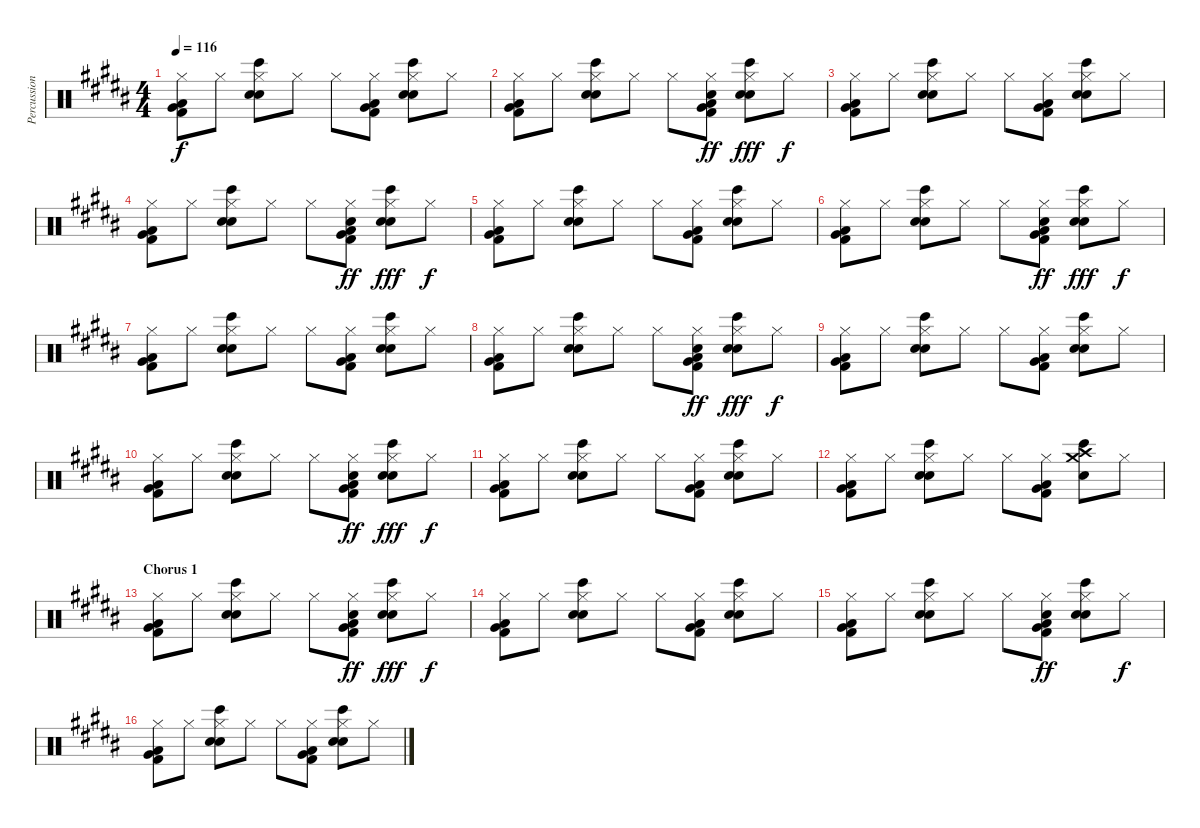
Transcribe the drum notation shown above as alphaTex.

\track ("Percussion" "Percussion") {instrument percussion}
\staff {score}
\articulation defaults
\ts (4 4)
\tempo 116
\clef neutral
\ks b
("Low Tom (hit)" "Very Low Tom (hit)" "Kick (hit) 2" "Hi-Hat (closed)").8{dy f} "Hi-Hat (closed)".8 ("Bongo High (hit)" "Hand Clap (hit)" "Snare (hit) 2" "Hi-Hat (closed)").8 "Hi-Hat (closed)".8 "Hi-Hat (closed)".8 ("Low Tom (hit)" "Very Low Tom (hit)" "Kick (hit) 2" "Hi-Hat (closed)").8 ("Bongo High (hit)" "Hand Clap (hit)" "Snare (hit) 2" "Hi-Hat (closed)").8 "Hi-Hat (closed)".8 |
("Low Tom (hit)" "Very Low Tom (hit)" "Kick (hit) 2" "Hi-Hat (closed)").8 "Hi-Hat (closed)".8 ("Bongo High (hit)" "Hand Clap (hit)" "Snare (hit) 2" "Hi-Hat (closed)").8 "Hi-Hat (closed)".8 "Hi-Hat (closed)".8 ("Low Tom (hit)" "Very Low Tom (hit)" "Kick (hit) 2" "Hi-Hat (closed)" "Hand Clap (hit)").8{dy ff} ("Bongo High (hit)" "Hand Clap (hit)" "Snare (hit) 2" "Hi-Hat (closed)").8{dy fff} "Hi-Hat (closed)".8{dy f} |
("Low Tom (hit)" "Very Low Tom (hit)" "Kick (hit) 2" "Hi-Hat (closed)").8 "Hi-Hat (closed)".8 ("Bongo High (hit)" "Hand Clap (hit)" "Snare (hit) 2" "Hi-Hat (closed)").8 "Hi-Hat (closed)".8 "Hi-Hat (closed)".8 ("Low Tom (hit)" "Very Low Tom (hit)" "Kick (hit) 2" "Hi-Hat (closed)").8 ("Bongo High (hit)" "Hand Clap (hit)" "Snare (hit) 2" "Hi-Hat (closed)").8 "Hi-Hat (closed)".8 |
("Low Tom (hit)" "Very Low Tom (hit)" "Kick (hit) 2" "Hi-Hat (closed)").8 "Hi-Hat (closed)".8 ("Bongo High (hit)" "Hand Clap (hit)" "Snare (hit) 2" "Hi-Hat (closed)").8 "Hi-Hat (closed)".8 "Hi-Hat (closed)".8 ("Low Tom (hit)" "Very Low Tom (hit)" "Kick (hit) 2" "Hi-Hat (closed)" "Hand Clap (hit)").8{dy ff} ("Bongo High (hit)" "Hand Clap (hit)" "Snare (hit) 2" "Hi-Hat (closed)").8{dy fff} "Hi-Hat (closed)".8{dy f} |
("Low Tom (hit)" "Very Low Tom (hit)" "Kick (hit) 2" "Hi-Hat (closed)").8 "Hi-Hat (closed)".8 ("Bongo High (hit)" "Hand Clap (hit)" "Snare (hit) 2" "Hi-Hat (closed)").8 "Hi-Hat (closed)".8 "Hi-Hat (closed)".8 ("Low Tom (hit)" "Very Low Tom (hit)" "Kick (hit) 2" "Hi-Hat (closed)").8 ("Bongo High (hit)" "Hand Clap (hit)" "Snare (hit) 2" "Hi-Hat (closed)").8 "Hi-Hat (closed)".8 |
("Low Tom (hit)" "Very Low Tom (hit)" "Kick (hit) 2" "Hi-Hat (closed)").8 "Hi-Hat (closed)".8 ("Bongo High (hit)" "Hand Clap (hit)" "Snare (hit) 2" "Hi-Hat (closed)").8 "Hi-Hat (closed)".8 "Hi-Hat (closed)".8 ("Low Tom (hit)" "Very Low Tom (hit)" "Kick (hit) 2" "Hi-Hat (closed)" "Hand Clap (hit)").8{dy ff} ("Bongo High (hit)" "Hand Clap (hit)" "Snare (hit) 2" "Hi-Hat (closed)").8{dy fff} "Hi-Hat (closed)".8{dy f} |
("Low Tom (hit)" "Very Low Tom (hit)" "Kick (hit) 2" "Hi-Hat (closed)").8 "Hi-Hat (closed)".8 ("Bongo High (hit)" "Hand Clap (hit)" "Snare (hit) 2" "Hi-Hat (closed)").8 "Hi-Hat (closed)".8 "Hi-Hat (closed)".8 ("Low Tom (hit)" "Very Low Tom (hit)" "Kick (hit) 2" "Hi-Hat (closed)").8 ("Bongo High (hit)" "Hand Clap (hit)" "Snare (hit) 2" "Hi-Hat (closed)").8 "Hi-Hat (closed)".8 |
("Low Tom (hit)" "Very Low Tom (hit)" "Kick (hit) 2" "Hi-Hat (closed)").8 "Hi-Hat (closed)".8 ("Bongo High (hit)" "Hand Clap (hit)" "Snare (hit) 2" "Hi-Hat (closed)").8 "Hi-Hat (closed)".8 "Hi-Hat (closed)".8 ("Low Tom (hit)" "Very Low Tom (hit)" "Kick (hit) 2" "Hi-Hat (closed)" "Hand Clap (hit)").8{dy ff} ("Bongo High (hit)" "Hand Clap (hit)" "Snare (hit) 2" "Hi-Hat (closed)").8{dy fff} "Hi-Hat (closed)".8{dy f} |
("Low Tom (hit)" "Very Low Tom (hit)" "Kick (hit) 2" "Hi-Hat (closed)").8 "Hi-Hat (closed)".8 ("Bongo High (hit)" "Hand Clap (hit)" "Snare (hit) 2" "Hi-Hat (closed)").8 "Hi-Hat (closed)".8 "Hi-Hat (closed)".8 ("Low Tom (hit)" "Very Low Tom (hit)" "Kick (hit) 2" "Hi-Hat (closed)").8 ("Bongo High (hit)" "Hand Clap (hit)" "Snare (hit) 2" "Hi-Hat (closed)").8 "Hi-Hat (closed)".8 |
("Low Tom (hit)" "Very Low Tom (hit)" "Kick (hit) 2" "Hi-Hat (closed)").8 "Hi-Hat (closed)".8 ("Bongo High (hit)" "Hand Clap (hit)" "Snare (hit) 2" "Hi-Hat (closed)").8 "Hi-Hat (closed)".8 "Hi-Hat (closed)".8 ("Low Tom (hit)" "Very Low Tom (hit)" "Kick (hit) 2" "Hi-Hat (closed)" "Hand Clap (hit)").8{dy ff} ("Bongo High (hit)" "Hand Clap (hit)" "Snare (hit) 2" "Hi-Hat (closed)").8{dy fff} "Hi-Hat (closed)".8{dy f} |
("Low Tom (hit)" "Very Low Tom (hit)" "Kick (hit) 2" "Hi-Hat (closed)").8 "Hi-Hat (closed)".8 ("Bongo High (hit)" "Hand Clap (hit)" "Snare (hit) 2" "Hi-Hat (closed)").8 "Hi-Hat (closed)".8 "Hi-Hat (closed)".8 ("Low Tom (hit)" "Very Low Tom (hit)" "Kick (hit) 2" "Hi-Hat (closed)").8 ("Bongo High (hit)" "Hand Clap (hit)" "Snare (hit) 2" "Hi-Hat (closed)").8 "Hi-Hat (closed)".8 |
("Low Tom (hit)" "Very Low Tom (hit)" "Kick (hit) 2" "Hi-Hat (closed)").8 "Hi-Hat (closed)".8 ("Bongo High (hit)" "Hand Clap (hit)" "Snare (hit) 2" "Hi-Hat (closed)").8 "Hi-Hat (closed)".8 "Hi-Hat (closed)".8 ("Low Tom (hit)" "Very Low Tom (hit)" "Kick (hit) 2" "Hi-Hat (closed)").8 ("Bongo High (hit)" "Hand Clap (hit)" "Crash medium (hit)" "Crash high (hit)").8 "Hi-Hat (closed)".8 |
\section ("" "Chorus 1")
("Low Tom (hit)" "Very Low Tom (hit)" "Kick (hit) 2" "Hi-Hat (closed)").8 "Hi-Hat (closed)".8 ("Bongo High (hit)" "Hand Clap (hit)" "Snare (hit) 2" "Hi-Hat (closed)").8 "Hi-Hat (closed)".8 "Hi-Hat (closed)".8 ("Low Tom (hit)" "Very Low Tom (hit)" "Kick (hit) 2" "Hi-Hat (closed)" "Hand Clap (hit)").8{dy ff} ("Bongo High (hit)" "Hand Clap (hit)" "Snare (hit) 2" "Hi-Hat (closed)").8{dy fff} "Hi-Hat (closed)".8{dy f} |
("Low Tom (hit)" "Very Low Tom (hit)" "Kick (hit) 2" "Hi-Hat (closed)").8 "Hi-Hat (closed)".8 ("Bongo High (hit)" "Hand Clap (hit)" "Snare (hit) 2" "Hi-Hat (closed)").8 "Hi-Hat (closed)".8 "Hi-Hat (closed)".8 ("Low Tom (hit)" "Very Low Tom (hit)" "Kick (hit) 2" "Hi-Hat (closed)").8 ("Bongo High (hit)" "Hand Clap (hit)" "Snare (hit) 2" "Hi-Hat (closed)").8 "Hi-Hat (closed)".8 |
("Low Tom (hit)" "Very Low Tom (hit)" "Kick (hit) 2" "Hi-Hat (closed)").8 "Hi-Hat (closed)".8 ("Bongo High (hit)" "Hand Clap (hit)" "Snare (hit) 2" "Hi-Hat (closed)").8 "Hi-Hat (closed)".8 "Hi-Hat (closed)".8 ("Low Tom (hit)" "Very Low Tom (hit)" "Kick (hit) 2" "Hi-Hat (closed)" "Hand Clap (hit)").8{dy ff} ("Bongo High (hit)" "Hand Clap (hit)" "Snare (hit) 2" "Hi-Hat (closed)").8 "Hi-Hat (closed)".8{dy f} |
("Low Tom (hit)" "Very Low Tom (hit)" "Kick (hit) 2" "Hi-Hat (closed)").8 "Hi-Hat (closed)".8 ("Bongo High (hit)" "Hand Clap (hit)" "Snare (hit) 2" "Hi-Hat (closed)").8 "Hi-Hat (closed)".8 "Hi-Hat (closed)".8 ("Low Tom (hit)" "Very Low Tom (hit)" "Kick (hit) 2" "Hi-Hat (closed)").8 ("Bongo High (hit)" "Hand Clap (hit)" "Snare (hit) 2" "Hi-Hat (closed)").8 "Hi-Hat (closed)".8
